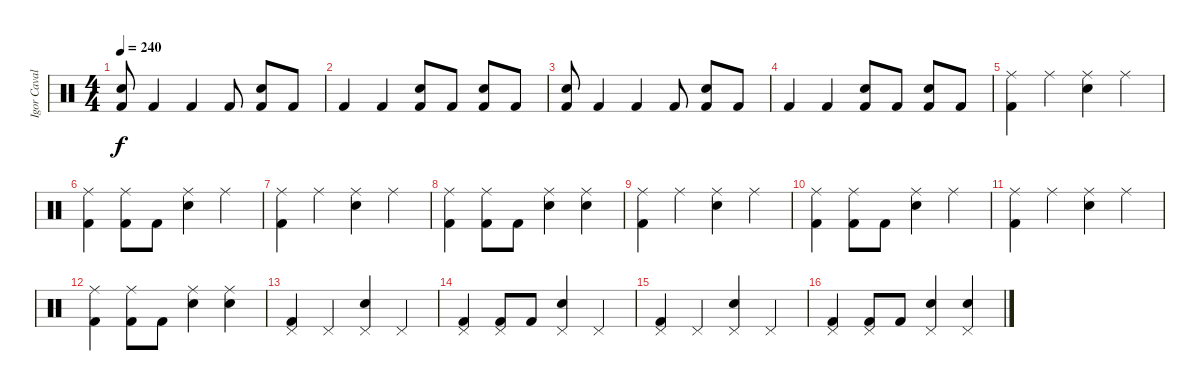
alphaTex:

\track ("Igor Cavalera" "Igor Caval") {instrument percussion}
\staff {score}
\articulation defaults
\ts (4 4)
\tempo 240
\clef neutral
\ks c
("Kick (hit) 2" "Snare (hit) 2").8{dy f} "Kick (hit) 2".4 "Kick (hit) 2".4 "Kick (hit) 2".8 ("Kick (hit) 2" "Snare (hit) 2").8 "Kick (hit) 2".8 |
"Kick (hit) 2".4 "Kick (hit) 2".4 ("Kick (hit) 2" "Snare (hit) 2").8 "Kick (hit) 2".8 ("Kick (hit) 2" "Snare (hit) 2").8 "Kick (hit) 2".8 |
("Kick (hit) 2" "Snare (hit) 2").8 "Kick (hit) 2".4 "Kick (hit) 2".4 "Kick (hit) 2".8 ("Kick (hit) 2" "Snare (hit) 2").8 "Kick (hit) 2".8 |
"Kick (hit) 2".4 "Kick (hit) 2".4 ("Kick (hit) 2" "Snare (hit) 2").8 "Kick (hit) 2".8 ("Kick (hit) 2" "Snare (hit) 2").8 "Kick (hit) 2".8 |
\section ("" "")
("Kick (hit) 2" "Ride (middle)").4 "Ride (middle)".4 ("Snare (hit) 2" "Ride (middle)").4 "Ride (middle)".4 |
("Kick (hit) 2" "Ride (middle)").4 ("Kick (hit) 2" "Ride (middle)").8 "Kick (hit) 2".8 ("Snare (hit) 2" "Ride (middle)").4 "Ride (middle)".4 |
("Kick (hit) 2" "Ride (middle)").4 "Ride (middle)".4 ("Snare (hit) 2" "Ride (middle)").4 "Ride (middle)".4 |
("Kick (hit) 2" "Ride (middle)").4 ("Kick (hit) 2" "Ride (middle)").8 "Kick (hit) 2".8 ("Snare (hit) 2" "Ride (middle)").4 ("Snare (hit) 2" "Ride (middle)").4 |
("Kick (hit) 2" "Ride (middle)").4 "Ride (middle)".4 ("Snare (hit) 2" "Ride (middle)").4 "Ride (middle)".4 |
("Kick (hit) 2" "Ride (middle)").4 ("Kick (hit) 2" "Ride (middle)").8 "Kick (hit) 2".8 ("Snare (hit) 2" "Ride (middle)").4 "Ride (middle)".4 |
("Kick (hit) 2" "Ride (middle)").4 "Ride (middle)".4 ("Snare (hit) 2" "Ride (middle)").4 "Ride (middle)".4 |
("Kick (hit) 2" "Ride (middle)").4 ("Kick (hit) 2" "Ride (middle)").8 "Kick (hit) 2".8 ("Snare (hit) 2" "Ride (middle)").4 ("Snare (hit) 2" "Ride (middle)").4 |
\section ("" "")
("Kick (hit) 2" "Pedal Hi-Hat (hit)").4 "Pedal Hi-Hat (hit)".4 ("Snare (hit) 2" "Pedal Hi-Hat (hit)").4 "Pedal Hi-Hat (hit)".4 |
("Kick (hit) 2" "Pedal Hi-Hat (hit)").4 ("Kick (hit) 2" "Pedal Hi-Hat (hit)").8 "Kick (hit) 2".8 ("Snare (hit) 2" "Pedal Hi-Hat (hit)").4 "Pedal Hi-Hat (hit)".4 |
("Kick (hit) 2" "Pedal Hi-Hat (hit)").4 "Pedal Hi-Hat (hit)".4 ("Snare (hit) 2" "Pedal Hi-Hat (hit)").4 "Pedal Hi-Hat (hit)".4 |
("Kick (hit) 2" "Pedal Hi-Hat (hit)").4 ("Kick (hit) 2" "Pedal Hi-Hat (hit)").8 "Kick (hit) 2".8 ("Snare (hit) 2" "Pedal Hi-Hat (hit)").4 ("Snare (hit) 2" "Pedal Hi-Hat (hit)").4
